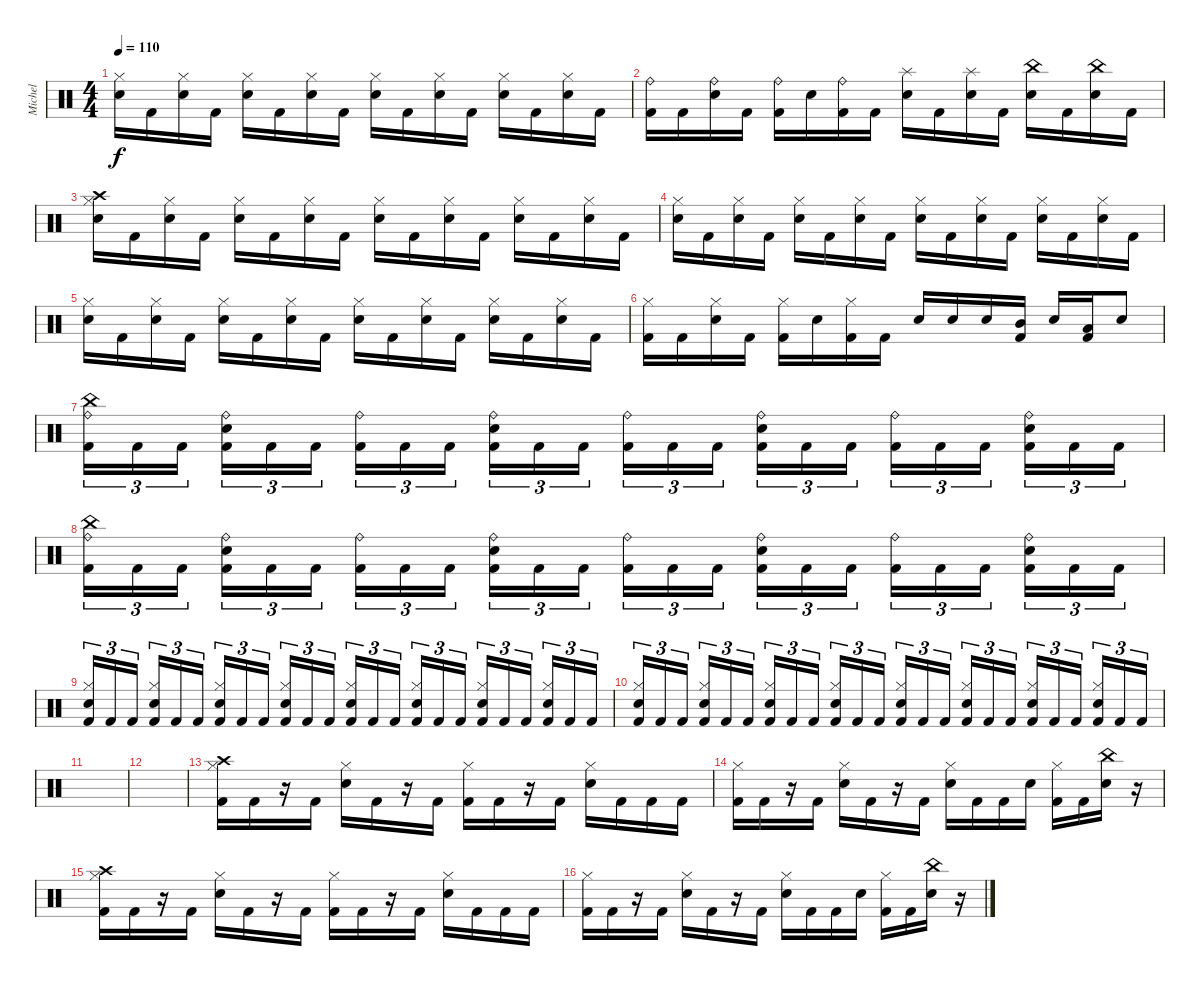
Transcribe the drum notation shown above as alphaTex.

\track ("Michel" "Michel") {instrument percussion}
\staff {score}
\articulation defaults
\ts (4 4)
\tempo 110
\clef neutral
\ks c
("Snare (hit) 2" "Hi-Hat (closed)").16{dy f} "Kick (hit) 2".16 ("Snare (hit) 2" "Hi-Hat (closed)").16 "Kick (hit) 2".16 ("Snare (hit) 2" "Hi-Hat (closed)").16 "Kick (hit) 2".16 ("Snare (hit) 2" "Hi-Hat (closed)").16 "Kick (hit) 2".16 ("Snare (hit) 2" "Hi-Hat (closed)").16 "Kick (hit) 2".16 ("Snare (hit) 2" "Hi-Hat (closed)").16 "Kick (hit) 2".16 ("Snare (hit) 2" "Hi-Hat (closed)").16 "Kick (hit) 2".16 ("Snare (hit) 2" "Hi-Hat (closed)").16 "Kick (hit) 2".16 |
("Kick (hit) 2" "Ride (bell)").16 "Kick (hit) 2".16 ("Snare (hit) 2" "Ride (bell)").16 "Kick (hit) 2".16 ("Kick (hit) 2" "Ride (bell)").16 "Snare (hit) 2".16 ("Kick (hit) 2" "Ride (bell)").16 "Kick (hit) 2".16 ("Splash (hit)" "Snare (hit) 2").16 "Kick (hit) 2".16 ("Splash (hit)" "Snare (hit) 2").16 "Kick (hit) 2".16 ("China (hit)" "Snare (hit) 2").16 "Kick (hit) 2".16 ("China (hit)" "Snare (hit) 2").16 "Kick (hit) 2".16 |
("Crash high (hit)" "Snare (hit) 2" "Hi-Hat (closed)").16 "Kick (hit) 2".16 ("Snare (hit) 2" "Hi-Hat (closed)").16 "Kick (hit) 2".16 ("Snare (hit) 2" "Hi-Hat (closed)").16 "Kick (hit) 2".16 ("Snare (hit) 2" "Hi-Hat (closed)").16 "Kick (hit) 2".16 ("Snare (hit) 2" "Hi-Hat (closed)").16 "Kick (hit) 2".16 ("Snare (hit) 2" "Hi-Hat (closed)").16 "Kick (hit) 2".16 ("Snare (hit) 2" "Hi-Hat (closed)").16 "Kick (hit) 2".16 ("Snare (hit) 2" "Hi-Hat (closed)").16 "Kick (hit) 2".16 |
("Snare (hit) 2" "Hi-Hat (closed)").16 "Kick (hit) 2".16 ("Snare (hit) 2" "Hi-Hat (closed)").16 "Kick (hit) 2".16 ("Snare (hit) 2" "Hi-Hat (closed)").16 "Kick (hit) 2".16 ("Snare (hit) 2" "Hi-Hat (closed)").16 "Kick (hit) 2".16 ("Snare (hit) 2" "Hi-Hat (closed)").16 "Kick (hit) 2".16 ("Snare (hit) 2" "Hi-Hat (closed)").16 "Kick (hit) 2".16 ("Snare (hit) 2" "Hi-Hat (closed)").16 "Kick (hit) 2".16 ("Snare (hit) 2" "Hi-Hat (closed)").16 "Kick (hit) 2".16 |
("Snare (hit) 2" "Hi-Hat (closed)").16 "Kick (hit) 2".16 ("Snare (hit) 2" "Hi-Hat (closed)").16 "Kick (hit) 2".16 ("Snare (hit) 2" "Hi-Hat (closed)").16 "Kick (hit) 2".16 ("Snare (hit) 2" "Hi-Hat (closed)").16 "Kick (hit) 2".16 ("Snare (hit) 2" "Hi-Hat (closed)").16 "Kick (hit) 2".16 ("Snare (hit) 2" "Hi-Hat (closed)").16 "Kick (hit) 2".16 ("Snare (hit) 2" "Hi-Hat (closed)").16 "Kick (hit) 2".16 ("Snare (hit) 2" "Hi-Hat (closed)").16 "Kick (hit) 2".16 |
("Kick (hit) 2" "Hi-Hat (closed)").16 "Kick (hit) 2".16 ("Snare (hit) 2" "Hi-Hat (closed)").16 "Kick (hit) 2".16 ("Kick (hit) 2" "Hi-Hat (closed)").16 "Snare (hit) 2".16 ("Kick (hit) 2" "Hi-Hat (closed)").16 "Kick (hit) 2".16 "Snare (hit) 2".16 "Snare (hit) 2".16 "Snare (hit) 2".16 ("Mid Tom (hit)" "Kick (hit) 2").16 "Snare (hit) 2".16 ("Low Tom (hit)" "Kick (hit) 2").16 "Snare (hit) 2".8 |
("China (hit)" "Kick (hit) 2" "Ride (bell)").16{tu (3 2)} "Kick (hit) 2".16{tu (3 2)} "Kick (hit) 2".16{tu (3 2)} ("Snare (hit) 2" "Kick (hit) 2" "Ride (bell)").16{tu (3 2)} "Kick (hit) 2".16{tu (3 2)} "Kick (hit) 2".16{tu (3 2)} ("Kick (hit) 2" "Ride (bell)").16{tu (3 2)} "Kick (hit) 2".16{tu (3 2)} "Kick (hit) 2".16{tu (3 2)} ("Snare (hit) 2" "Kick (hit) 2" "Ride (bell)").16{tu (3 2)} "Kick (hit) 2".16{tu (3 2)} "Kick (hit) 2".16{tu (3 2)} ("Kick (hit) 2" "Ride (bell)").16{tu (3 2)} "Kick (hit) 2".16{tu (3 2)} "Kick (hit) 2".16{tu (3 2)} ("Snare (hit) 2" "Kick (hit) 2" "Ride (bell)").16{tu (3 2)} "Kick (hit) 2".16{tu (3 2)} "Kick (hit) 2".16{tu (3 2)} ("Kick (hit) 2" "Ride (bell)").16{tu (3 2)} "Kick (hit) 2".16{tu (3 2)} "Kick (hit) 2".16{tu (3 2)} ("Snare (hit) 2" "Kick (hit) 2" "Ride (bell)").16{tu (3 2)} "Kick (hit) 2".16{tu (3 2)} "Kick (hit) 2".16{tu (3 2)} |
("China (hit)" "Kick (hit) 2" "Ride (bell)").16{tu (3 2)} "Kick (hit) 2".16{tu (3 2)} "Kick (hit) 2".16{tu (3 2)} ("Snare (hit) 2" "Kick (hit) 2" "Ride (bell)").16{tu (3 2)} "Kick (hit) 2".16{tu (3 2)} "Kick (hit) 2".16{tu (3 2)} ("Kick (hit) 2" "Ride (bell)").16{tu (3 2)} "Kick (hit) 2".16{tu (3 2)} "Kick (hit) 2".16{tu (3 2)} ("Snare (hit) 2" "Kick (hit) 2" "Ride (bell)").16{tu (3 2)} "Kick (hit) 2".16{tu (3 2)} "Kick (hit) 2".16{tu (3 2)} ("Kick (hit) 2" "Ride (bell)").16{tu (3 2)} "Kick (hit) 2".16{tu (3 2)} "Kick (hit) 2".16{tu (3 2)} ("Snare (hit) 2" "Kick (hit) 2" "Ride (bell)").16{tu (3 2)} "Kick (hit) 2".16{tu (3 2)} "Kick (hit) 2".16{tu (3 2)} ("Kick (hit) 2" "Ride (bell)").16{tu (3 2)} "Kick (hit) 2".16{tu (3 2)} "Kick (hit) 2".16{tu (3 2)} ("Snare (hit) 2" "Kick (hit) 2" "Ride (bell)").16{tu (3 2)} "Kick (hit) 2".16{tu (3 2)} "Kick (hit) 2".16{tu (3 2)} |
("Snare (hit) 2" "Kick (hit) 2" "Hi-Hat (closed)").16{tu (3 2)} "Kick (hit) 2".16{tu (3 2)} "Kick (hit) 2".16{tu (3 2)} ("Snare (hit) 2" "Kick (hit) 2" "Hi-Hat (closed)").16{tu (3 2)} "Kick (hit) 2".16{tu (3 2)} "Kick (hit) 2".16{tu (3 2)} ("Snare (hit) 2" "Kick (hit) 2" "Hi-Hat (closed)").16{tu (3 2)} "Kick (hit) 2".16{tu (3 2)} "Kick (hit) 2".16{tu (3 2)} ("Snare (hit) 2" "Kick (hit) 2" "Hi-Hat (closed)").16{tu (3 2)} "Kick (hit) 2".16{tu (3 2)} "Kick (hit) 2".16{tu (3 2)} ("Snare (hit) 2" "Kick (hit) 2" "Hi-Hat (closed)").16{tu (3 2)} "Kick (hit) 2".16{tu (3 2)} "Kick (hit) 2".16{tu (3 2)} ("Snare (hit) 2" "Kick (hit) 2" "Hi-Hat (closed)").16{tu (3 2)} "Kick (hit) 2".16{tu (3 2)} "Kick (hit) 2".16{tu (3 2)} ("Snare (hit) 2" "Kick (hit) 2" "Hi-Hat (closed)").16{tu (3 2)} "Kick (hit) 2".16{tu (3 2)} "Kick (hit) 2".16{tu (3 2)} ("Snare (hit) 2" "Kick (hit) 2" "Hi-Hat (closed)").16{tu (3 2)} "Kick (hit) 2".16{tu (3 2)} "Kick (hit) 2".16{tu (3 2)} |
("Snare (hit) 2" "Kick (hit) 2" "Hi-Hat (closed)").16{tu (3 2)} "Kick (hit) 2".16{tu (3 2)} "Kick (hit) 2".16{tu (3 2)} ("Snare (hit) 2" "Kick (hit) 2" "Hi-Hat (closed)").16{tu (3 2)} "Kick (hit) 2".16{tu (3 2)} "Kick (hit) 2".16{tu (3 2)} ("Snare (hit) 2" "Kick (hit) 2" "Hi-Hat (closed)").16{tu (3 2)} "Kick (hit) 2".16{tu (3 2)} "Kick (hit) 2".16{tu (3 2)} ("Snare (hit) 2" "Kick (hit) 2" "Hi-Hat (closed)").16{tu (3 2)} "Kick (hit) 2".16{tu (3 2)} "Kick (hit) 2".16{tu (3 2)} ("Snare (hit) 2" "Kick (hit) 2" "Hi-Hat (closed)").16{tu (3 2)} "Kick (hit) 2".16{tu (3 2)} "Kick (hit) 2".16{tu (3 2)} ("Snare (hit) 2" "Kick (hit) 2" "Hi-Hat (closed)").16{tu (3 2)} "Kick (hit) 2".16{tu (3 2)} "Kick (hit) 2".16{tu (3 2)} ("Snare (hit) 2" "Kick (hit) 2" "Hi-Hat (closed)").16{tu (3 2)} "Kick (hit) 2".16{tu (3 2)} "Kick (hit) 2".16{tu (3 2)} ("Snare (hit) 2" "Kick (hit) 2" "Hi-Hat (closed)").16{tu (3 2)} "Kick (hit) 2".16{tu (3 2)} "Kick (hit) 2".16{tu (3 2)} |
|
|
("Crash high (hit)" "Kick (hit) 2" "Hi-Hat (closed)").16 "Kick (hit) 2".16 r.16 "Kick (hit) 2".16 ("Snare (hit) 2" "Hi-Hat (closed)").16 "Kick (hit) 2".16 r.16 "Kick (hit) 2".16 ("Kick (hit) 2" "Hi-Hat (closed)").16 "Kick (hit) 2".16 r.16 "Kick (hit) 2".16 ("Snare (hit) 2" "Hi-Hat (closed)").16 "Kick (hit) 2".16 "Kick (hit) 2".16 "Kick (hit) 2".16 |
("Kick (hit) 2" "Hi-Hat (closed)").16 "Kick (hit) 2".16 r.16 "Kick (hit) 2".16 ("Snare (hit) 2" "Hi-Hat (closed)").16 "Kick (hit) 2".16 r.16 "Kick (hit) 2".16 ("Snare (hit) 2" "Hi-Hat (closed)").16 "Kick (hit) 2".16 "Kick (hit) 2".16 "Snare (hit) 2".16 ("Kick (hit) 2" "Hi-Hat (closed)").16 "Kick (hit) 2".16 ("China (hit)" "Snare (hit) 2").16 r.16 |
("Crash high (hit)" "Kick (hit) 2" "Hi-Hat (closed)").16 "Kick (hit) 2".16 r.16 "Kick (hit) 2".16 ("Snare (hit) 2" "Hi-Hat (closed)").16 "Kick (hit) 2".16 r.16 "Kick (hit) 2".16 ("Kick (hit) 2" "Hi-Hat (closed)").16 "Kick (hit) 2".16 r.16 "Kick (hit) 2".16 ("Snare (hit) 2" "Hi-Hat (closed)").16 "Kick (hit) 2".16 "Kick (hit) 2".16 "Kick (hit) 2".16 |
("Kick (hit) 2" "Hi-Hat (closed)").16 "Kick (hit) 2".16 r.16 "Kick (hit) 2".16 ("Snare (hit) 2" "Hi-Hat (closed)").16 "Kick (hit) 2".16 r.16 "Kick (hit) 2".16 ("Snare (hit) 2" "Hi-Hat (closed)").16 "Kick (hit) 2".16 "Kick (hit) 2".16 "Snare (hit) 2".16 ("Kick (hit) 2" "Hi-Hat (closed)").16 "Kick (hit) 2".16 ("China (hit)" "Snare (hit) 2").16 r.16
